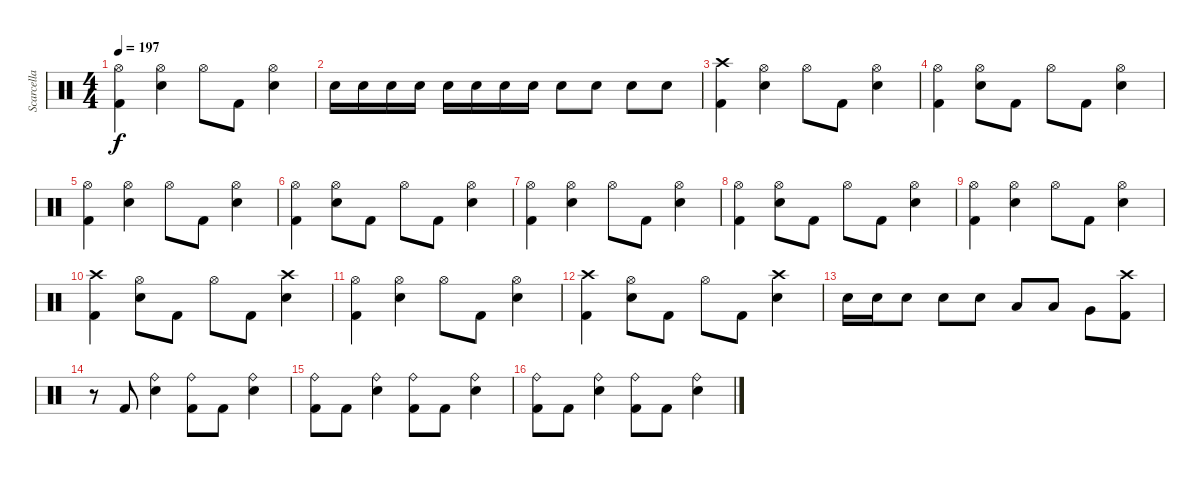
\track ("Scarcella" "Scarcella") {instrument percussion}
\staff {score}
\articulation defaults
\ts (4 4)
\tempo 197
\clef neutral
\ks c
("Hi-Hat (open)" "Kick (hit) 2").4{dy f} ("Hi-Hat (open)" "Electric Snare (hit)").4 "Hi-Hat (open)".8 "Kick (hit) 2".8 ("Hi-Hat (open)" "Electric Snare (hit)").4 |
"Electric Snare (hit)".16 "Electric Snare (hit)".16 "Electric Snare (hit)".16 "Electric Snare (hit)".16 "Electric Snare (hit)".16 "Electric Snare (hit)".16 "Electric Snare (hit)".16 "Electric Snare (hit)".16 "Electric Snare (hit)".8 "Electric Snare (hit)".8 "Electric Snare (hit)".8 "Electric Snare (hit)".8 |
("Crash high (hit)" "Kick (hit) 2").4 ("Hi-Hat (open)" "Electric Snare (hit)").4 "Hi-Hat (open)".8 "Kick (hit) 2".8 ("Hi-Hat (open)" "Electric Snare (hit)").4 |
("Hi-Hat (open)" "Kick (hit) 2").4 ("Hi-Hat (open)" "Electric Snare (hit)").8 "Kick (hit) 2".8 "Hi-Hat (open)".8 "Kick (hit) 2".8 ("Hi-Hat (open)" "Electric Snare (hit)").4 |
("Hi-Hat (open)" "Kick (hit) 2").4 ("Hi-Hat (open)" "Electric Snare (hit)").4 "Hi-Hat (open)".8 "Kick (hit) 2".8 ("Hi-Hat (open)" "Electric Snare (hit)").4 |
("Hi-Hat (open)" "Kick (hit) 2").4 ("Hi-Hat (open)" "Electric Snare (hit)").8 "Kick (hit) 2".8 "Hi-Hat (open)".8 "Kick (hit) 2".8 ("Hi-Hat (open)" "Electric Snare (hit)").4 |
("Hi-Hat (open)" "Kick (hit) 2").4 ("Hi-Hat (open)" "Electric Snare (hit)").4 "Hi-Hat (open)".8 "Kick (hit) 2".8 ("Hi-Hat (open)" "Electric Snare (hit)").4 |
("Hi-Hat (open)" "Kick (hit) 2").4 ("Hi-Hat (open)" "Electric Snare (hit)").8 "Kick (hit) 2".8 "Hi-Hat (open)".8 "Kick (hit) 2".8 ("Hi-Hat (open)" "Electric Snare (hit)").4 |
("Hi-Hat (open)" "Kick (hit) 2").4 ("Hi-Hat (open)" "Electric Snare (hit)").4 "Hi-Hat (open)".8 "Kick (hit) 2".8 ("Hi-Hat (open)" "Electric Snare (hit)").4 |
("Crash high (hit)" "Kick (hit) 2").4 ("Hi-Hat (open)" "Electric Snare (hit)").8 "Kick (hit) 2".8 "Hi-Hat (open)".8 "Kick (hit) 2".8 ("Crash high (hit)" "Electric Snare (hit)").4 |
("Hi-Hat (open)" "Kick (hit) 2").4 ("Hi-Hat (open)" "Electric Snare (hit)").4 "Hi-Hat (open)".8 "Kick (hit) 2".8 ("Hi-Hat (open)" "Electric Snare (hit)").4 |
("Crash high (hit)" "Kick (hit) 2").4 ("Hi-Hat (open)" "Electric Snare (hit)").8 "Kick (hit) 2".8 "Hi-Hat (open)".8 "Kick (hit) 2".8 ("Crash high (hit)" "Electric Snare (hit)").4 |
"Electric Snare (hit)".16 "Electric Snare (hit)".16 "Electric Snare (hit)".8 "Electric Snare (hit)".8 "Electric Snare (hit)".8 "Low Tom (hit)".8 "Low Tom (hit)".8 "Very Low Tom (hit)".8 ("Crash high (hit)" "Kick (hit) 2").8 |
r.8 "Kick (hit) 2".8 ("Ride (bell)" "Electric Snare (hit)").4 ("Ride (bell)" "Kick (hit) 2").8 "Kick (hit) 2".8 ("Ride (bell)" "Electric Snare (hit)").4 |
("Ride (bell)" "Kick (hit) 2").8 "Kick (hit) 2".8 ("Ride (bell)" "Electric Snare (hit)").4 ("Ride (bell)" "Kick (hit) 2").8 "Kick (hit) 2".8 ("Ride (bell)" "Electric Snare (hit)").4 |
("Ride (bell)" "Kick (hit) 2").8 "Kick (hit) 2".8 ("Ride (bell)" "Electric Snare (hit)").4 ("Ride (bell)" "Kick (hit) 2").8 "Kick (hit) 2".8 ("Ride (bell)" "Electric Snare (hit)").4
